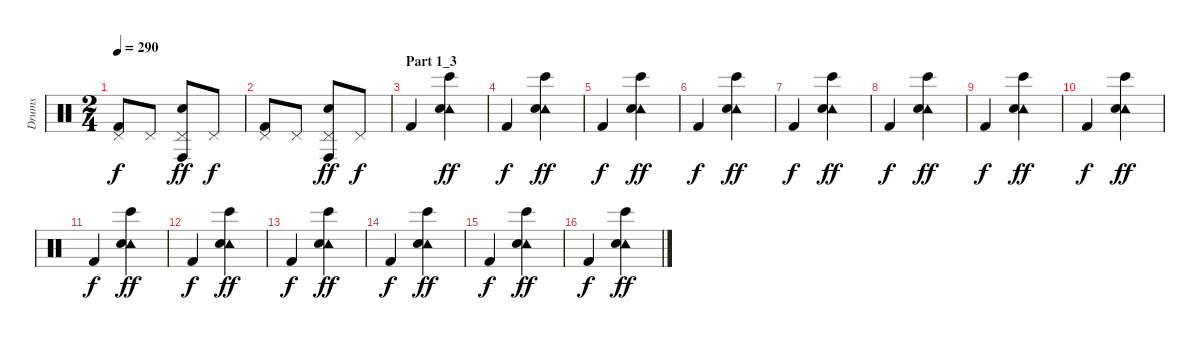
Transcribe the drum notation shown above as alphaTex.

\track ("Drums" "Drums") {instrument percussion}
\staff {score}
\articulation defaults
\ts (2 4)
\tempo 290
\clef neutral
\ks c
("Pedal Hi-Hat (hit)" "Kick (hit) 2").8{dy f} "Pedal Hi-Hat (hit)".8 ("Pedal Hi-Hat (hit)" "Conga high (hit)" "Electric Snare (hit)").8{dy ff} "Pedal Hi-Hat (hit)".8{dy f} |
("Pedal Hi-Hat (hit)" "Kick (hit) 2").8 "Pedal Hi-Hat (hit)".8 ("Pedal Hi-Hat (hit)" "Conga high (hit)" "Electric Snare (hit)").8{dy ff} "Pedal Hi-Hat (hit)".8{dy f} |
\section ("" "Part 1_3")
"Kick (hit) 2".4 ("Tambourine (hit)" "Bongo High (hit)" "Electric Snare (hit)").4{dy ff} |
"Kick (hit) 2".4{dy f} ("Tambourine (hit)" "Bongo High (hit)" "Electric Snare (hit)").4{dy ff} |
"Kick (hit) 2".4{dy f} ("Tambourine (hit)" "Bongo High (hit)" "Electric Snare (hit)").4{dy ff} |
"Kick (hit) 2".4{dy f} ("Tambourine (hit)" "Bongo High (hit)" "Electric Snare (hit)").4{dy ff} |
"Kick (hit) 2".4{dy f} ("Tambourine (hit)" "Bongo High (hit)" "Electric Snare (hit)").4{dy ff} |
"Kick (hit) 2".4{dy f} ("Tambourine (hit)" "Bongo High (hit)" "Electric Snare (hit)").4{dy ff} |
"Kick (hit) 2".4{dy f} ("Tambourine (hit)" "Bongo High (hit)" "Electric Snare (hit)").4{dy ff} |
"Kick (hit) 2".4{dy f} ("Tambourine (hit)" "Bongo High (hit)" "Electric Snare (hit)").4{dy ff} |
"Kick (hit) 2".4{dy f} ("Tambourine (hit)" "Bongo High (hit)" "Electric Snare (hit)").4{dy ff} |
"Kick (hit) 2".4{dy f} ("Tambourine (hit)" "Bongo High (hit)" "Electric Snare (hit)").4{dy ff} |
"Kick (hit) 2".4{dy f} ("Tambourine (hit)" "Bongo High (hit)" "Electric Snare (hit)").4{dy ff} |
"Kick (hit) 2".4{dy f} ("Tambourine (hit)" "Bongo High (hit)" "Electric Snare (hit)").4{dy ff} |
"Kick (hit) 2".4{dy f} ("Tambourine (hit)" "Bongo High (hit)" "Electric Snare (hit)").4{dy ff} |
"Kick (hit) 2".4{dy f} ("Tambourine (hit)" "Bongo High (hit)" "Electric Snare (hit)").4{dy ff}
